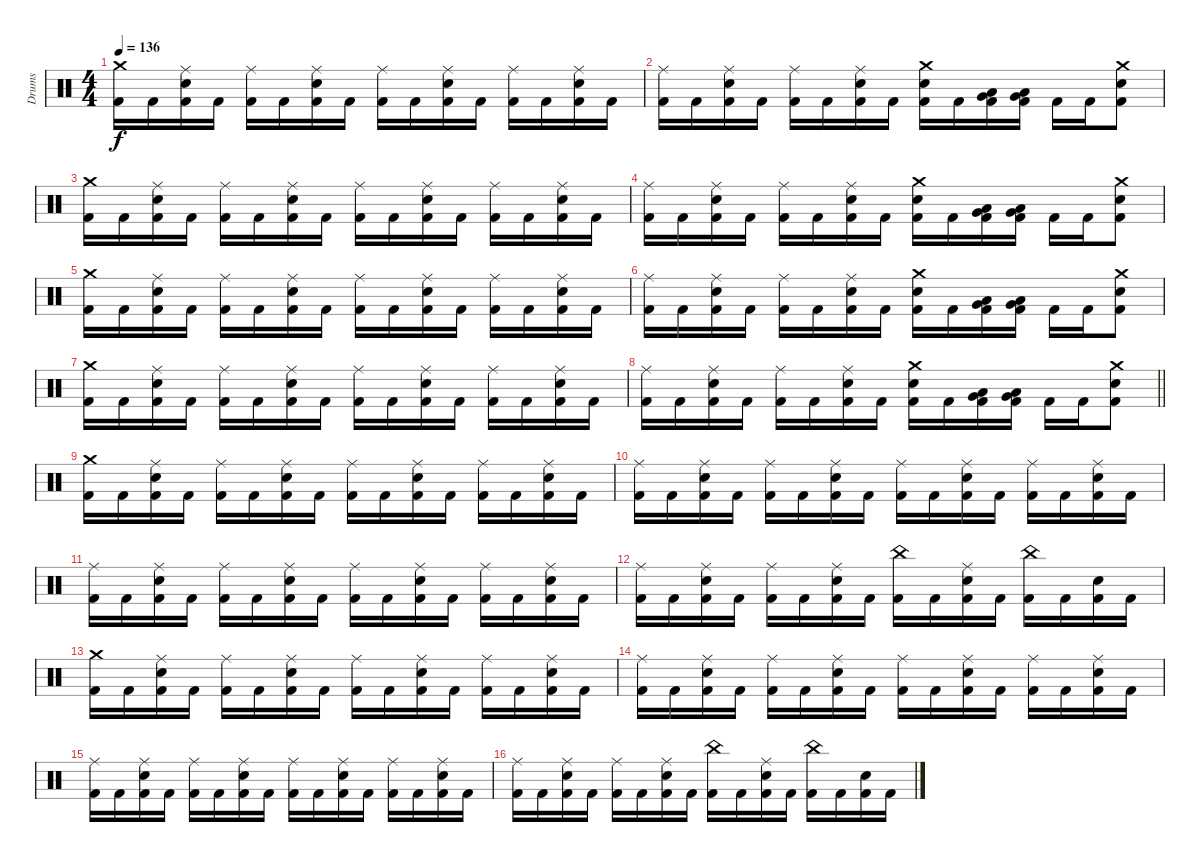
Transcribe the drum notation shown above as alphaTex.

\track ("Drums" "Drums") {instrument percussion}
\staff {score}
\articulation defaults
\ts (4 4)
\tempo 136
\clef neutral
\ks c
("Crash medium (hit)" "Kick (hit) 2").16{dy f} "Kick (hit) 2".16 ("Ride (middle)" "Electric Snare (hit)" "Kick (hit) 2").16 "Kick (hit) 2".16 ("Ride (middle)" "Kick (hit) 2").16 "Kick (hit) 2".16 ("Ride (middle)" "Electric Snare (hit)" "Kick (hit) 2").16 "Kick (hit) 2".16 ("Ride (middle)" "Kick (hit) 2").16 "Kick (hit) 2".16 ("Ride (middle)" "Electric Snare (hit)" "Kick (hit) 2").16 "Kick (hit) 2".16 ("Ride (middle)" "Kick (hit) 2").16 "Kick (hit) 2".16 ("Ride (middle)" "Electric Snare (hit)" "Kick (hit) 2").16 "Kick (hit) 2".16 |
("Ride (middle)" "Kick (hit) 2").16 "Kick (hit) 2".16 ("Ride (middle)" "Electric Snare (hit)" "Kick (hit) 2").16 "Kick (hit) 2".16 ("Ride (middle)" "Kick (hit) 2").16 "Kick (hit) 2".16 ("Ride (middle)" "Electric Snare (hit)" "Kick (hit) 2").16 "Kick (hit) 2".16 ("Crash medium (hit)" "Electric Snare (hit)" "Kick (hit) 2").16 "Kick (hit) 2".16 ("Very Low Tom (hit)" "Low Floor Tom (hit)" "Kick (hit) 2").16 ("Very Low Tom (hit)" "Low Floor Tom (hit)" "Kick (hit) 2").16 "Kick (hit) 2".16 "Kick (hit) 2".16 ("Crash medium (hit)" "Electric Snare (hit)" "Kick (hit) 2").8 |
("Crash medium (hit)" "Kick (hit) 2").16 "Kick (hit) 2".16 ("Ride (middle)" "Electric Snare (hit)" "Kick (hit) 2").16 "Kick (hit) 2".16 ("Ride (middle)" "Kick (hit) 2").16 "Kick (hit) 2".16 ("Ride (middle)" "Electric Snare (hit)" "Kick (hit) 2").16 "Kick (hit) 2".16 ("Ride (middle)" "Kick (hit) 2").16 "Kick (hit) 2".16 ("Ride (middle)" "Electric Snare (hit)" "Kick (hit) 2").16 "Kick (hit) 2".16 ("Ride (middle)" "Kick (hit) 2").16 "Kick (hit) 2".16 ("Ride (middle)" "Electric Snare (hit)" "Kick (hit) 2").16 "Kick (hit) 2".16 |
("Ride (middle)" "Kick (hit) 2").16 "Kick (hit) 2".16 ("Ride (middle)" "Electric Snare (hit)" "Kick (hit) 2").16 "Kick (hit) 2".16 ("Ride (middle)" "Kick (hit) 2").16 "Kick (hit) 2".16 ("Ride (middle)" "Electric Snare (hit)" "Kick (hit) 2").16 "Kick (hit) 2".16 ("Crash medium (hit)" "Electric Snare (hit)" "Kick (hit) 2").16 "Kick (hit) 2".16 ("Very Low Tom (hit)" "Low Floor Tom (hit)" "Kick (hit) 2").16 ("Very Low Tom (hit)" "Low Floor Tom (hit)" "Kick (hit) 2").16 "Kick (hit) 2".16 "Kick (hit) 2".16 ("Crash medium (hit)" "Electric Snare (hit)" "Kick (hit) 2").8 |
("Crash medium (hit)" "Kick (hit) 2").16 "Kick (hit) 2".16 ("Ride (middle)" "Electric Snare (hit)" "Kick (hit) 2").16 "Kick (hit) 2".16 ("Ride (middle)" "Kick (hit) 2").16 "Kick (hit) 2".16 ("Ride (middle)" "Electric Snare (hit)" "Kick (hit) 2").16 "Kick (hit) 2".16 ("Ride (middle)" "Kick (hit) 2").16 "Kick (hit) 2".16 ("Ride (middle)" "Electric Snare (hit)" "Kick (hit) 2").16 "Kick (hit) 2".16 ("Ride (middle)" "Kick (hit) 2").16 "Kick (hit) 2".16 ("Ride (middle)" "Electric Snare (hit)" "Kick (hit) 2").16 "Kick (hit) 2".16 |
("Ride (middle)" "Kick (hit) 2").16 "Kick (hit) 2".16 ("Ride (middle)" "Electric Snare (hit)" "Kick (hit) 2").16 "Kick (hit) 2".16 ("Ride (middle)" "Kick (hit) 2").16 "Kick (hit) 2".16 ("Ride (middle)" "Electric Snare (hit)" "Kick (hit) 2").16 "Kick (hit) 2".16 ("Crash medium (hit)" "Electric Snare (hit)" "Kick (hit) 2").16 "Kick (hit) 2".16 ("Very Low Tom (hit)" "Low Floor Tom (hit)" "Kick (hit) 2").16 ("Very Low Tom (hit)" "Low Floor Tom (hit)" "Kick (hit) 2").16 "Kick (hit) 2".16 "Kick (hit) 2".16 ("Crash medium (hit)" "Electric Snare (hit)" "Kick (hit) 2").8 |
("Crash medium (hit)" "Kick (hit) 2").16 "Kick (hit) 2".16 ("Ride (middle)" "Electric Snare (hit)" "Kick (hit) 2").16 "Kick (hit) 2".16 ("Ride (middle)" "Kick (hit) 2").16 "Kick (hit) 2".16 ("Ride (middle)" "Electric Snare (hit)" "Kick (hit) 2").16 "Kick (hit) 2".16 ("Ride (middle)" "Kick (hit) 2").16 "Kick (hit) 2".16 ("Ride (middle)" "Electric Snare (hit)" "Kick (hit) 2").16 "Kick (hit) 2".16 ("Ride (middle)" "Kick (hit) 2").16 "Kick (hit) 2".16 ("Ride (middle)" "Electric Snare (hit)" "Kick (hit) 2").16 "Kick (hit) 2".16 |
\barLineRight lightlight
("Ride (middle)" "Kick (hit) 2").16 "Kick (hit) 2".16 ("Ride (middle)" "Electric Snare (hit)" "Kick (hit) 2").16 "Kick (hit) 2".16 ("Ride (middle)" "Kick (hit) 2").16 "Kick (hit) 2".16 ("Ride (middle)" "Electric Snare (hit)" "Kick (hit) 2").16 "Kick (hit) 2".16 ("Crash medium (hit)" "Electric Snare (hit)" "Kick (hit) 2").16 "Kick (hit) 2".16 ("Very Low Tom (hit)" "Low Floor Tom (hit)" "Kick (hit) 2").16 ("Very Low Tom (hit)" "Low Floor Tom (hit)" "Kick (hit) 2").16 "Kick (hit) 2".16 "Kick (hit) 2".16 ("Crash medium (hit)" "Electric Snare (hit)" "Kick (hit) 2").8 |
\section ("" "")
("Crash medium (hit)" "Kick (hit) 2").16 "Kick (hit) 2".16 ("Ride (middle)" "Electric Snare (hit)" "Kick (hit) 2").16 "Kick (hit) 2".16 ("Ride (middle)" "Kick (hit) 2").16 "Kick (hit) 2".16 ("Ride (middle)" "Electric Snare (hit)" "Kick (hit) 2").16 "Kick (hit) 2".16 ("Ride (middle)" "Kick (hit) 2").16 "Kick (hit) 2".16 ("Ride (middle)" "Electric Snare (hit)" "Kick (hit) 2").16 "Kick (hit) 2".16 ("Ride (middle)" "Kick (hit) 2").16 "Kick (hit) 2".16 ("Ride (middle)" "Electric Snare (hit)" "Kick (hit) 2").16 "Kick (hit) 2".16 |
("Ride (middle)" "Kick (hit) 2").16 "Kick (hit) 2".16 ("Ride (middle)" "Electric Snare (hit)" "Kick (hit) 2").16 "Kick (hit) 2".16 ("Ride (middle)" "Kick (hit) 2").16 "Kick (hit) 2".16 ("Ride (middle)" "Electric Snare (hit)" "Kick (hit) 2").16 "Kick (hit) 2".16 ("Ride (middle)" "Kick (hit) 2").16 "Kick (hit) 2".16 ("Ride (middle)" "Electric Snare (hit)" "Kick (hit) 2").16 "Kick (hit) 2".16 ("Ride (middle)" "Kick (hit) 2").16 "Kick (hit) 2".16 ("Ride (middle)" "Electric Snare (hit)" "Kick (hit) 2").16 "Kick (hit) 2".16 |
("Ride (middle)" "Kick (hit) 2").16 "Kick (hit) 2".16 ("Ride (middle)" "Electric Snare (hit)" "Kick (hit) 2").16 "Kick (hit) 2".16 ("Ride (middle)" "Kick (hit) 2").16 "Kick (hit) 2".16 ("Ride (middle)" "Electric Snare (hit)" "Kick (hit) 2").16 "Kick (hit) 2".16 ("Ride (middle)" "Kick (hit) 2").16 "Kick (hit) 2".16 ("Ride (middle)" "Electric Snare (hit)" "Kick (hit) 2").16 "Kick (hit) 2".16 ("Ride (middle)" "Kick (hit) 2").16 "Kick (hit) 2".16 ("Ride (middle)" "Electric Snare (hit)" "Kick (hit) 2").16 "Kick (hit) 2".16 |
("Ride (middle)" "Kick (hit) 2").16 "Kick (hit) 2".16 ("Ride (middle)" "Electric Snare (hit)" "Kick (hit) 2").16 "Kick (hit) 2".16 ("Ride (middle)" "Kick (hit) 2").16 "Kick (hit) 2".16 ("Ride (middle)" "Electric Snare (hit)" "Kick (hit) 2").16 "Kick (hit) 2".16 ("China (hit)" "Kick (hit) 2").16 "Kick (hit) 2".16 ("Ride (middle)" "Electric Snare (hit)" "Kick (hit) 2").16 "Kick (hit) 2".16 ("China (hit)" "Kick (hit) 2").16 "Kick (hit) 2".16 ("Electric Snare (hit)" "Kick (hit) 2").16 "Kick (hit) 2".16 |
("Crash medium (hit)" "Kick (hit) 2").16 "Kick (hit) 2".16 ("Ride (middle)" "Electric Snare (hit)" "Kick (hit) 2").16 "Kick (hit) 2".16 ("Ride (middle)" "Kick (hit) 2").16 "Kick (hit) 2".16 ("Ride (middle)" "Electric Snare (hit)" "Kick (hit) 2").16 "Kick (hit) 2".16 ("Ride (middle)" "Kick (hit) 2").16 "Kick (hit) 2".16 ("Ride (middle)" "Electric Snare (hit)" "Kick (hit) 2").16 "Kick (hit) 2".16 ("Ride (middle)" "Kick (hit) 2").16 "Kick (hit) 2".16 ("Ride (middle)" "Electric Snare (hit)" "Kick (hit) 2").16 "Kick (hit) 2".16 |
("Ride (middle)" "Kick (hit) 2").16 "Kick (hit) 2".16 ("Ride (middle)" "Electric Snare (hit)" "Kick (hit) 2").16 "Kick (hit) 2".16 ("Ride (middle)" "Kick (hit) 2").16 "Kick (hit) 2".16 ("Ride (middle)" "Electric Snare (hit)" "Kick (hit) 2").16 "Kick (hit) 2".16 ("Ride (middle)" "Kick (hit) 2").16 "Kick (hit) 2".16 ("Ride (middle)" "Electric Snare (hit)" "Kick (hit) 2").16 "Kick (hit) 2".16 ("Ride (middle)" "Kick (hit) 2").16 "Kick (hit) 2".16 ("Ride (middle)" "Electric Snare (hit)" "Kick (hit) 2").16 "Kick (hit) 2".16 |
("Ride (middle)" "Kick (hit) 2").16 "Kick (hit) 2".16 ("Ride (middle)" "Electric Snare (hit)" "Kick (hit) 2").16 "Kick (hit) 2".16 ("Ride (middle)" "Kick (hit) 2").16 "Kick (hit) 2".16 ("Ride (middle)" "Electric Snare (hit)" "Kick (hit) 2").16 "Kick (hit) 2".16 ("Ride (middle)" "Kick (hit) 2").16 "Kick (hit) 2".16 ("Ride (middle)" "Electric Snare (hit)" "Kick (hit) 2").16 "Kick (hit) 2".16 ("Ride (middle)" "Kick (hit) 2").16 "Kick (hit) 2".16 ("Ride (middle)" "Electric Snare (hit)" "Kick (hit) 2").16 "Kick (hit) 2".16 |
("Ride (middle)" "Kick (hit) 2").16 "Kick (hit) 2".16 ("Ride (middle)" "Electric Snare (hit)" "Kick (hit) 2").16 "Kick (hit) 2".16 ("Ride (middle)" "Kick (hit) 2").16 "Kick (hit) 2".16 ("Ride (middle)" "Electric Snare (hit)" "Kick (hit) 2").16 "Kick (hit) 2".16 ("China (hit)" "Kick (hit) 2").16 "Kick (hit) 2".16 ("Ride (middle)" "Electric Snare (hit)" "Kick (hit) 2").16 "Kick (hit) 2".16 ("China (hit)" "Kick (hit) 2").16 "Kick (hit) 2".16 ("Electric Snare (hit)" "Kick (hit) 2").16 "Kick (hit) 2".16
